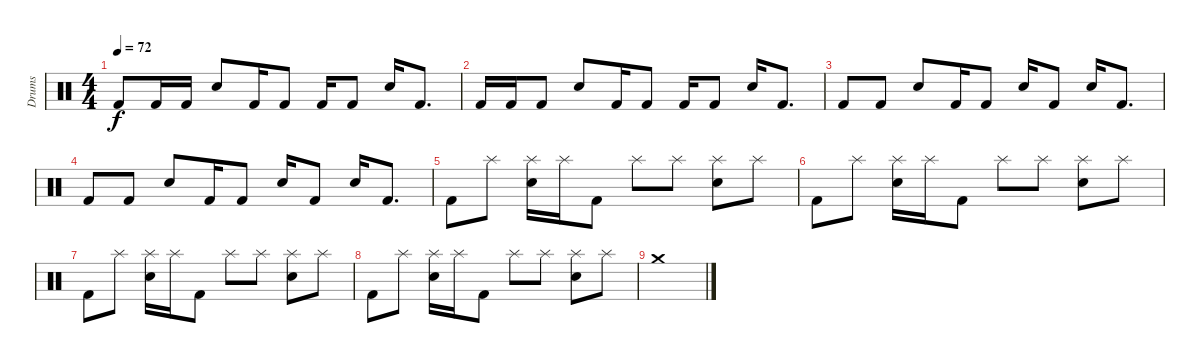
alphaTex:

\track ("Drums" "Drums") {instrument percussion}
\staff {score}
\articulation defaults
\ts (4 4)
\tempo 72
\clef neutral
\ks c "Kick (hit) 2".8{dy f} "Kick (hit) 2".16 "Kick (hit) 2".16 "Snare (hit) 2".8 "Kick (hit) 2".16 "Kick (hit) 2".8 "Kick (hit) 2".16 "Kick (hit) 2".8 "Snare (hit) 2".16 "Kick (hit) 2".8{d}
|
"Kick (hit) 2".16 "Kick (hit) 2".16 "Kick (hit) 2".8 "Snare (hit) 2".8 "Kick (hit) 2".16 "Kick (hit) 2".8 "Kick (hit) 2".16 "Kick (hit) 2".8 "Snare (hit) 2".16 "Kick (hit) 2".8{d} |
"Kick (hit) 2".8 "Kick (hit) 2".8 "Snare (hit) 2".8 "Kick (hit) 2".16 "Kick (hit) 2".8 "Snare (hit) 2".16 "Kick (hit) 2".8 "Snare (hit) 2".16 "Kick (hit) 2".8{d} |
"Kick (hit) 2".8 "Kick (hit) 2".8 "Snare (hit) 2".8 "Kick (hit) 2".16 "Kick (hit) 2".8 "Snare (hit) 2".16 "Kick (hit) 2".8 "Snare (hit) 2".16 "Kick (hit) 2".8{d} |
"Kick (hit) 2".8 "Splash (hit)".8 ("Snare (hit) 2" "Splash (hit)").16 "Splash (hit)".16 "Kick (hit) 2".8 "Splash (hit)".8 "Splash (hit)".8 ("Splash (hit)" "Snare (hit) 2").8 "Splash (hit)".8 |
"Kick (hit) 2".8 "Splash (hit)".8 ("Snare (hit) 2" "Splash (hit)").16 "Splash (hit)".16 "Kick (hit) 2".8 "Splash (hit)".8 "Splash (hit)".8 ("Splash (hit)" "Snare (hit) 2").8 "Splash (hit)".8 |
"Kick (hit) 2".8 "Splash (hit)".8 ("Snare (hit) 2" "Splash (hit)").16 "Splash (hit)".16 "Kick (hit) 2".8 "Splash (hit)".8 "Splash (hit)".8 ("Splash (hit)" "Snare (hit) 2").8 "Splash (hit)".8 |
"Kick (hit) 2".8 "Splash (hit)".8 ("Snare (hit) 2" "Splash (hit)").16 "Splash (hit)".16 "Kick (hit) 2".8 "Splash (hit)".8 "Splash (hit)".8 ("Splash (hit)" "Snare (hit) 2").8 "Splash (hit)".8 |
"Crash medium (hit)".1
